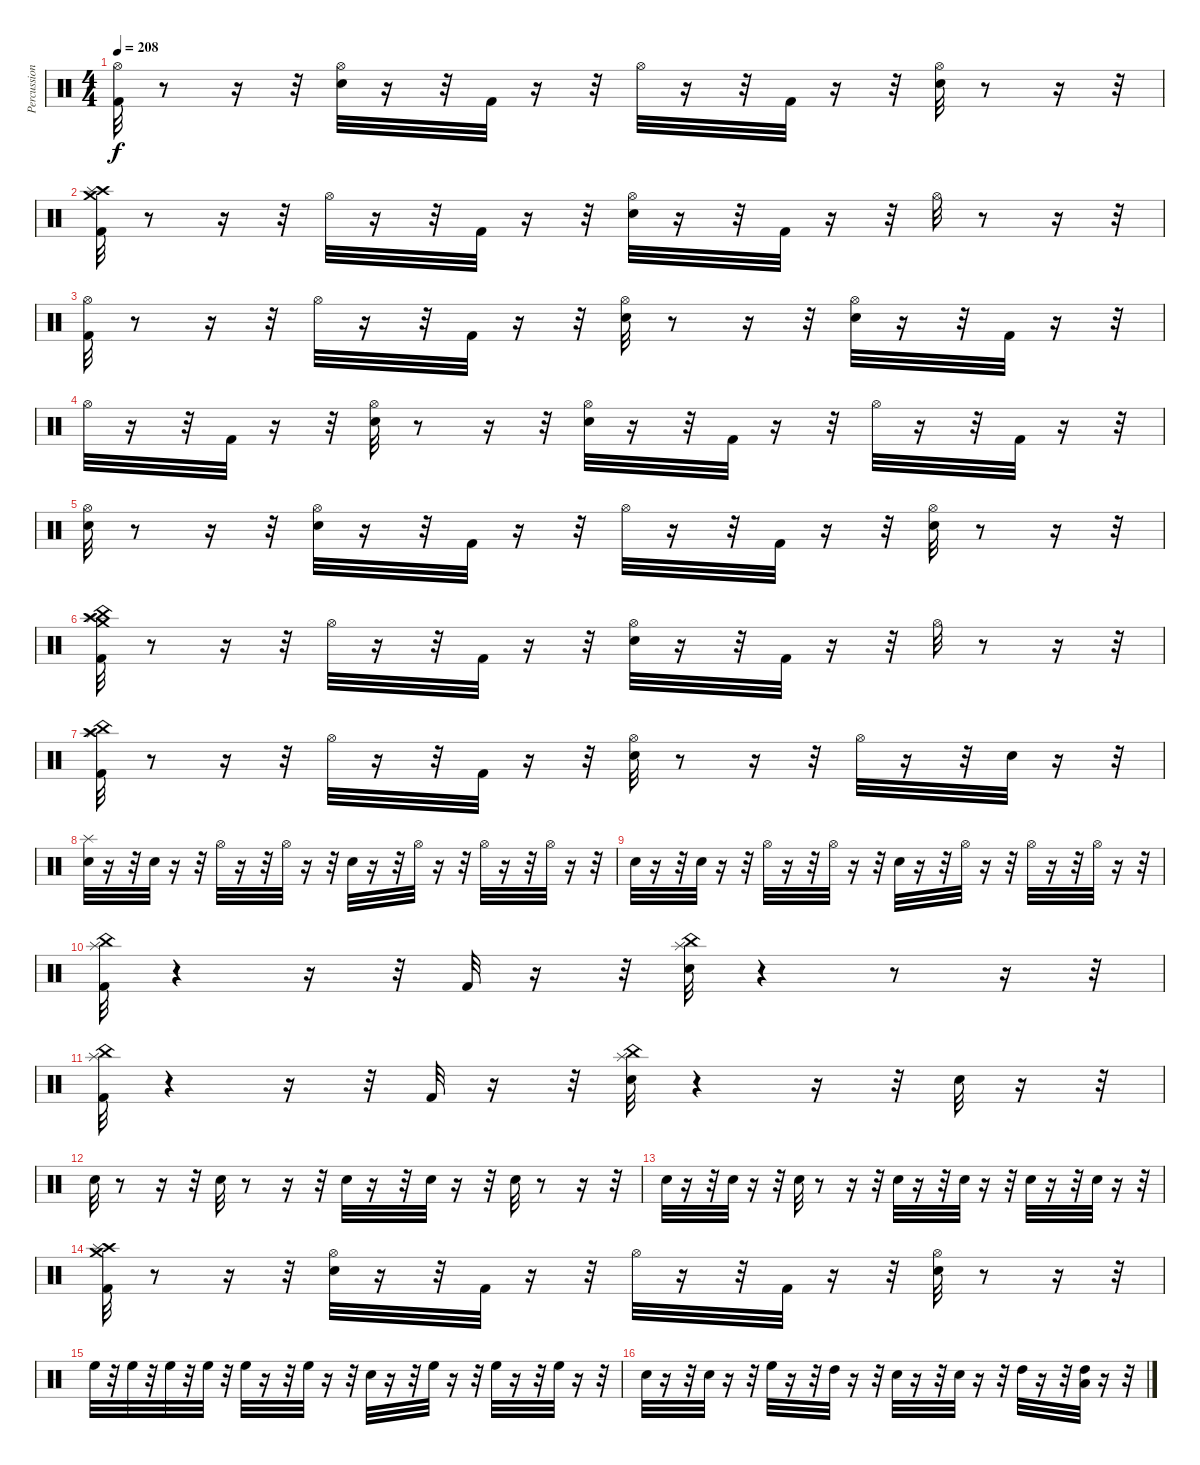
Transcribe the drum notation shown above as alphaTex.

\track ("Percussion" "Percussion") {instrument percussion}
\staff {score}
\articulation defaults
\ts (4 4)
\tempo 208
\clef neutral
\ks c
("Kick (hit) 2" "Hi-Hat (open)").32{dy f} r.8 r.16 r.32 ("Snare (hit) 2" "Hi-Hat (open)").32 r.16 r.32 "Kick (hit) 2".32 r.16 r.32 "Hi-Hat (open)".32 r.16 r.32 "Kick (hit) 2".32 r.16 r.32 ("Snare (hit) 2" "Hi-Hat (open)").32 r.8 r.16 r.32 |
("Crash high (hit)" "Crash medium (hit)" "Splash (hit)" "Kick (hit) 2").32 r.8 r.16 r.32 "Hi-Hat (open)".32 r.16 r.32 "Kick (hit) 2".32 r.16 r.32 ("Hi-Hat (open)" "Snare (hit) 2").32 r.16 r.32 "Kick (hit) 2".32 r.16 r.32 "Hi-Hat (open)".32 r.8 r.16 r.32 |
("Hi-Hat (open)" "Kick (hit) 2").32 r.8 r.16 r.32 "Hi-Hat (open)".32 r.16 r.32 "Kick (hit) 2".32 r.16 r.32 ("Hi-Hat (open)" "Snare (hit) 2").32 r.8 r.16 r.32 ("Snare (hit) 2" "Hi-Hat (open)").32 r.16 r.32 "Kick (hit) 2".32 r.16 r.32 |
"Hi-Hat (open)".32 r.16 r.32 "Kick (hit) 2".32 r.16 r.32 ("Snare (hit) 2" "Hi-Hat (open)").32 r.8 r.16 r.32 ("Hi-Hat (open)" "Snare (hit) 2").32 r.16 r.32 "Kick (hit) 2".32 r.16 r.32 "Hi-Hat (open)".32 r.16 r.32 "Kick (hit) 2".32 r.16 r.32 |
("Snare (hit) 2" "Hi-Hat (open)").32 r.8 r.16 r.32 ("Hi-Hat (open)" "Snare (hit) 2").32 r.16 r.32 "Kick (hit) 2".32 r.16 r.32 "Hi-Hat (open)".32 r.16 r.32 "Kick (hit) 2".32 r.16 r.32 ("Snare (hit) 2" "Hi-Hat (open)").32 r.8 r.16 r.32 |
("China (hit)" "Kick (hit) 2" "Crash high (hit)" "Splash (hit)" "Crash medium (hit)").32 r.8 r.16 r.32 "Hi-Hat (open)".32 r.16 r.32 "Kick (hit) 2".32 r.16 r.32 ("Hi-Hat (open)" "Snare (hit) 2").32 r.16 r.32 "Kick (hit) 2".32 r.16 r.32 "Hi-Hat (open)".32 r.8 r.16 r.32 |
("China (hit)" "Splash (hit)" "Crash high (hit)" "Kick (hit) 2").32 r.8 r.16 r.32 "Hi-Hat (open)".32 r.16 r.32 "Kick (hit) 2".32 r.16 r.32 ("Snare (hit) 2" "Hi-Hat (open)").32 r.8 r.16 r.32 "Hi-Hat (open)".32 r.16 r.32 "Snare (hit) 2".32 r.16 r.32 |
("Snare (hit) 2" "Splash (hit)").32 r.16 r.32 "Snare (hit) 2".32 r.16 r.32 "Hi-Hat (open)".32 r.16 r.32 "Hi-Hat (open)".32 r.16 r.32 "Snare (hit) 2".32 r.16 r.32 "Hi-Hat (open)".32 r.16 r.32 "Hi-Hat (open)".32 r.16 r.32 "Hi-Hat (open)".32 r.16 r.32 |
"Snare (hit) 2".32 r.16 r.32 "Snare (hit) 2".32 r.16 r.32 "Hi-Hat (open)".32 r.16 r.32 "Hi-Hat (open)".32 r.16 r.32 "Snare (hit) 2".32 r.16 r.32 "Hi-Hat (open)".32 r.16 r.32 "Hi-Hat (open)".32 r.16 r.32 "Hi-Hat (open)".32 r.16 r.32 |
("Kick (hit) 2" "China (hit)" "Splash (hit)").32 r.4 r.16 r.32 "Kick (hit) 2".32 r.16 r.32 ("Snare (hit) 2" "China (hit)" "Splash (hit)").32 r.4 r.8 r.16 r.32 |
("Kick (hit) 2" "China (hit)" "Splash (hit)").32 r.4 r.16 r.32 "Kick (hit) 2".32 r.16 r.32 ("Snare (hit) 2" "China (hit)" "Splash (hit)").32 r.4 r.16 r.32 "Snare (hit) 2".32 r.16 r.32 |
"Snare (hit) 2".32 r.8 r.16 r.32 "Snare (hit) 2".32 r.8 r.16 r.32 "Snare (hit) 2".32 r.16 r.32 "Snare (hit) 2".32 r.16 r.32 "Snare (hit) 2".32 r.8 r.16 r.32 |
"Snare (hit) 2".32 r.16 r.32 "Snare (hit) 2".32 r.16 r.32 "Snare (hit) 2".32 r.8 r.16 r.32 "Snare (hit) 2".32 r.16 r.32 "Snare (hit) 2".32 r.16 r.32 "Snare (hit) 2".32 r.16 r.32 "Snare (hit) 2".32 r.16 r.32 |
("Kick (hit) 2" "Crash high (hit)" "Crash medium (hit)" "Splash (hit)").32 r.8 r.16 r.32 ("Snare (hit) 2" "Hi-Hat (open)").32 r.16 r.32 "Kick (hit) 2".32 r.16 r.32 "Hi-Hat (open)".32 r.16 r.32 "Kick (hit) 2".32 r.16 r.32 ("Snare (hit) 2" "Hi-Hat (open)").32 r.8 r.16 r.32 |
"High Floor Tom (hit)".32 r.32 "High Floor Tom (hit)".32 r.32 "High Floor Tom (hit)".32 r.32 "High Floor Tom (hit)".32 r.32 "High Floor Tom (hit)".32 r.16 r.32 "High Floor Tom (hit)".32 r.16 r.32 "Snare (hit) 2".32 r.16 r.32 "High Floor Tom (hit)".32 r.16 r.32 "High Floor Tom (hit)".32 r.16 r.32 "High Floor Tom (hit)".32 r.16 r.32 |
"Snare (hit) 2".32 r.16 r.32 "Snare (hit) 2".32 r.16 r.32 "High Floor Tom (hit)".32 r.16 r.32 "High Tom (hit)".32 r.16 r.32 "Snare (hit) 2".32 r.16 r.32 "Snare (hit) 2".32 r.16 r.32 "High Tom (hit)".32 r.16 r.32 ("Low Tom (hit)" "High Tom (hit)").32 r.16 r.32
